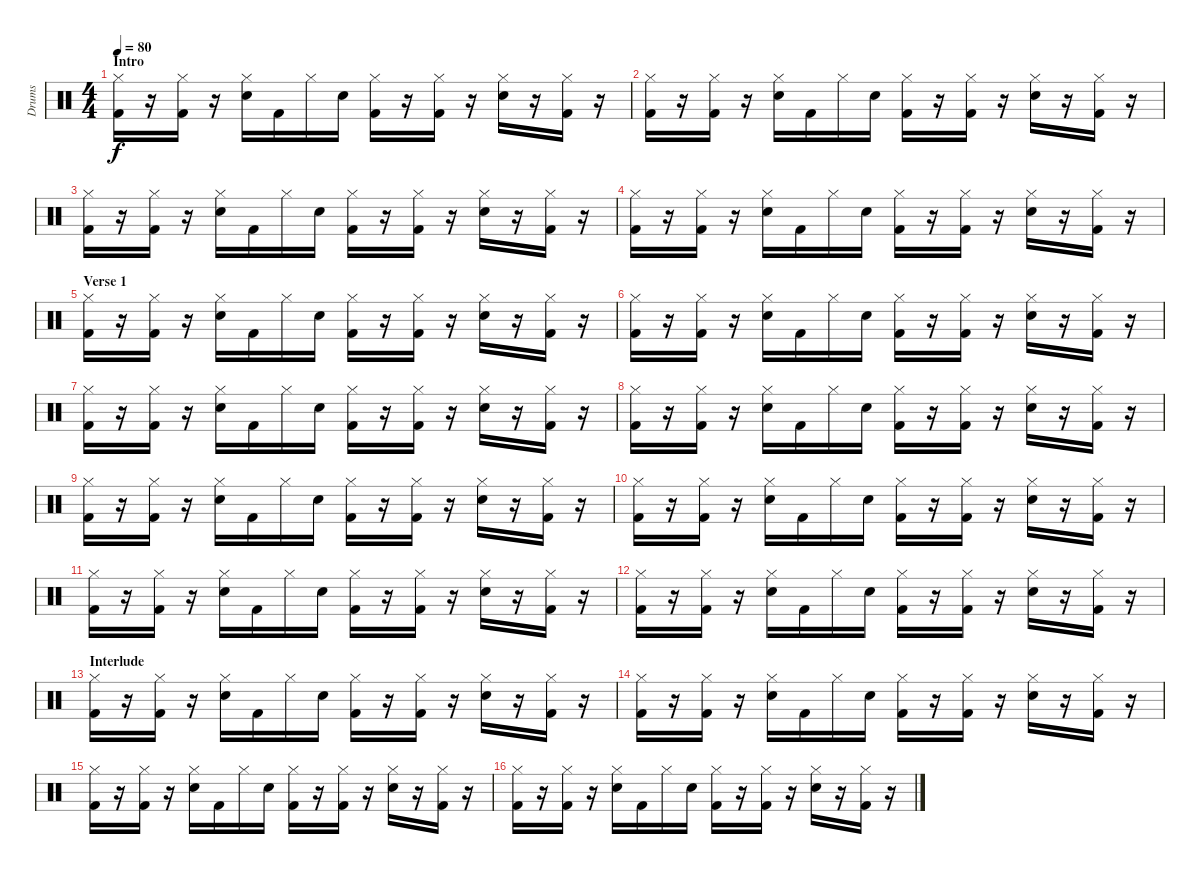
\track ("Drums" "Drums") {instrument percussion}
\staff {score}
\articulation defaults
\ts (4 4)
\section ("" "Intro")
\tempo 80
\clef neutral
\ks c
("Kick (hit) 2" "Hi-Hat (closed)").16{dy f} r.16 ("Kick (hit) 2" "Hi-Hat (closed)").16 r.16 ("Snare (hit) 2" "Hi-Hat (closed)").16 "Kick (hit) 2".16 "Hi-Hat (closed)".16 "Snare (hit) 2".16 ("Kick (hit) 2" "Hi-Hat (closed)").16 r.16 ("Kick (hit) 2" "Hi-Hat (closed)").16 r.16 ("Snare (hit) 2" "Hi-Hat (closed)").16 r.16 ("Kick (hit) 2" "Hi-Hat (closed)").16 r.16 |
("Kick (hit) 2" "Hi-Hat (closed)").16 r.16 ("Kick (hit) 2" "Hi-Hat (closed)").16 r.16 ("Snare (hit) 2" "Hi-Hat (closed)").16 "Kick (hit) 2".16 "Hi-Hat (closed)".16 "Snare (hit) 2".16 ("Kick (hit) 2" "Hi-Hat (closed)").16 r.16 ("Kick (hit) 2" "Hi-Hat (closed)").16 r.16 ("Snare (hit) 2" "Hi-Hat (closed)").16 r.16 ("Kick (hit) 2" "Hi-Hat (closed)").16 r.16 |
("Kick (hit) 2" "Hi-Hat (closed)").16 r.16 ("Kick (hit) 2" "Hi-Hat (closed)").16 r.16 ("Snare (hit) 2" "Hi-Hat (closed)").16 "Kick (hit) 2".16 "Hi-Hat (closed)".16 "Snare (hit) 2".16 ("Kick (hit) 2" "Hi-Hat (closed)").16 r.16 ("Kick (hit) 2" "Hi-Hat (closed)").16 r.16 ("Snare (hit) 2" "Hi-Hat (closed)").16 r.16 ("Kick (hit) 2" "Hi-Hat (closed)").16 r.16 |
("Kick (hit) 2" "Hi-Hat (closed)").16 r.16 ("Kick (hit) 2" "Hi-Hat (closed)").16 r.16 ("Snare (hit) 2" "Hi-Hat (closed)").16 "Kick (hit) 2".16 "Hi-Hat (closed)".16 "Snare (hit) 2".16 ("Kick (hit) 2" "Hi-Hat (closed)").16 r.16 ("Kick (hit) 2" "Hi-Hat (closed)").16 r.16 ("Snare (hit) 2" "Hi-Hat (closed)").16 r.16 ("Kick (hit) 2" "Hi-Hat (closed)").16 r.16 |
\section ("" "Verse 1")
("Kick (hit) 2" "Hi-Hat (closed)").16 r.16 ("Kick (hit) 2" "Hi-Hat (closed)").16 r.16 ("Snare (hit) 2" "Hi-Hat (closed)").16 "Kick (hit) 2".16 "Hi-Hat (closed)".16 "Snare (hit) 2".16 ("Kick (hit) 2" "Hi-Hat (closed)").16 r.16 ("Kick (hit) 2" "Hi-Hat (closed)").16 r.16 ("Snare (hit) 2" "Hi-Hat (closed)").16 r.16 ("Kick (hit) 2" "Hi-Hat (closed)").16 r.16 |
("Kick (hit) 2" "Hi-Hat (closed)").16 r.16 ("Kick (hit) 2" "Hi-Hat (closed)").16 r.16 ("Snare (hit) 2" "Hi-Hat (closed)").16 "Kick (hit) 2".16 "Hi-Hat (closed)".16 "Snare (hit) 2".16 ("Kick (hit) 2" "Hi-Hat (closed)").16 r.16 ("Kick (hit) 2" "Hi-Hat (closed)").16 r.16 ("Snare (hit) 2" "Hi-Hat (closed)").16 r.16 ("Kick (hit) 2" "Hi-Hat (closed)").16 r.16 |
("Kick (hit) 2" "Hi-Hat (closed)").16 r.16 ("Kick (hit) 2" "Hi-Hat (closed)").16 r.16 ("Snare (hit) 2" "Hi-Hat (closed)").16 "Kick (hit) 2".16 "Hi-Hat (closed)".16 "Snare (hit) 2".16 ("Kick (hit) 2" "Hi-Hat (closed)").16 r.16 ("Kick (hit) 2" "Hi-Hat (closed)").16 r.16 ("Snare (hit) 2" "Hi-Hat (closed)").16 r.16 ("Kick (hit) 2" "Hi-Hat (closed)").16 r.16 |
("Kick (hit) 2" "Hi-Hat (closed)").16 r.16 ("Kick (hit) 2" "Hi-Hat (closed)").16 r.16 ("Snare (hit) 2" "Hi-Hat (closed)").16 "Kick (hit) 2".16 "Hi-Hat (closed)".16 "Snare (hit) 2".16 ("Kick (hit) 2" "Hi-Hat (closed)").16 r.16 ("Kick (hit) 2" "Hi-Hat (closed)").16 r.16 ("Snare (hit) 2" "Hi-Hat (closed)").16 r.16 ("Kick (hit) 2" "Hi-Hat (closed)").16 r.16 |
("Kick (hit) 2" "Hi-Hat (closed)").16 r.16 ("Kick (hit) 2" "Hi-Hat (closed)").16 r.16 ("Snare (hit) 2" "Hi-Hat (closed)").16 "Kick (hit) 2".16 "Hi-Hat (closed)".16 "Snare (hit) 2".16 ("Kick (hit) 2" "Hi-Hat (closed)").16 r.16 ("Kick (hit) 2" "Hi-Hat (closed)").16 r.16 ("Snare (hit) 2" "Hi-Hat (closed)").16 r.16 ("Kick (hit) 2" "Hi-Hat (closed)").16 r.16 |
("Kick (hit) 2" "Hi-Hat (closed)").16 r.16 ("Kick (hit) 2" "Hi-Hat (closed)").16 r.16 ("Snare (hit) 2" "Hi-Hat (closed)").16 "Kick (hit) 2".16 "Hi-Hat (closed)".16 "Snare (hit) 2".16 ("Kick (hit) 2" "Hi-Hat (closed)").16 r.16 ("Kick (hit) 2" "Hi-Hat (closed)").16 r.16 ("Snare (hit) 2" "Hi-Hat (closed)").16 r.16 ("Kick (hit) 2" "Hi-Hat (closed)").16 r.16 |
("Kick (hit) 2" "Hi-Hat (closed)").16 r.16 ("Kick (hit) 2" "Hi-Hat (closed)").16 r.16 ("Snare (hit) 2" "Hi-Hat (closed)").16 "Kick (hit) 2".16 "Hi-Hat (closed)".16 "Snare (hit) 2".16 ("Kick (hit) 2" "Hi-Hat (closed)").16 r.16 ("Kick (hit) 2" "Hi-Hat (closed)").16 r.16 ("Snare (hit) 2" "Hi-Hat (closed)").16 r.16 ("Kick (hit) 2" "Hi-Hat (closed)").16 r.16 |
("Kick (hit) 2" "Hi-Hat (closed)").16 r.16 ("Kick (hit) 2" "Hi-Hat (closed)").16 r.16 ("Snare (hit) 2" "Hi-Hat (closed)").16 "Kick (hit) 2".16 "Hi-Hat (closed)".16 "Snare (hit) 2".16 ("Kick (hit) 2" "Hi-Hat (closed)").16 r.16 ("Kick (hit) 2" "Hi-Hat (closed)").16 r.16 ("Snare (hit) 2" "Hi-Hat (closed)").16 r.16 ("Kick (hit) 2" "Hi-Hat (closed)").16 r.16 |
\section ("" "Interlude")
("Kick (hit) 2" "Hi-Hat (closed)").16 r.16 ("Kick (hit) 2" "Hi-Hat (closed)").16 r.16 ("Snare (hit) 2" "Hi-Hat (closed)").16 "Kick (hit) 2".16 "Hi-Hat (closed)".16 "Snare (hit) 2".16 ("Kick (hit) 2" "Hi-Hat (closed)").16 r.16 ("Kick (hit) 2" "Hi-Hat (closed)").16 r.16 ("Snare (hit) 2" "Hi-Hat (closed)").16 r.16 ("Kick (hit) 2" "Hi-Hat (closed)").16 r.16 |
("Kick (hit) 2" "Hi-Hat (closed)").16 r.16 ("Kick (hit) 2" "Hi-Hat (closed)").16 r.16 ("Snare (hit) 2" "Hi-Hat (closed)").16 "Kick (hit) 2".16 "Hi-Hat (closed)".16 "Snare (hit) 2".16 ("Kick (hit) 2" "Hi-Hat (closed)").16 r.16 ("Kick (hit) 2" "Hi-Hat (closed)").16 r.16 ("Snare (hit) 2" "Hi-Hat (closed)").16 r.16 ("Kick (hit) 2" "Hi-Hat (closed)").16 r.16 |
("Kick (hit) 2" "Hi-Hat (closed)").16 r.16 ("Kick (hit) 2" "Hi-Hat (closed)").16 r.16 ("Snare (hit) 2" "Hi-Hat (closed)").16 "Kick (hit) 2".16 "Hi-Hat (closed)".16 "Snare (hit) 2".16 ("Kick (hit) 2" "Hi-Hat (closed)").16 r.16 ("Kick (hit) 2" "Hi-Hat (closed)").16 r.16 ("Snare (hit) 2" "Hi-Hat (closed)").16 r.16 ("Kick (hit) 2" "Hi-Hat (closed)").16 r.16 |
("Kick (hit) 2" "Hi-Hat (closed)").16 r.16 ("Kick (hit) 2" "Hi-Hat (closed)").16 r.16 ("Snare (hit) 2" "Hi-Hat (closed)").16 "Kick (hit) 2".16 "Hi-Hat (closed)".16 "Snare (hit) 2".16 ("Kick (hit) 2" "Hi-Hat (closed)").16 r.16 ("Kick (hit) 2" "Hi-Hat (closed)").16 r.16 ("Snare (hit) 2" "Hi-Hat (closed)").16 r.16 ("Kick (hit) 2" "Hi-Hat (closed)").16 r.16
